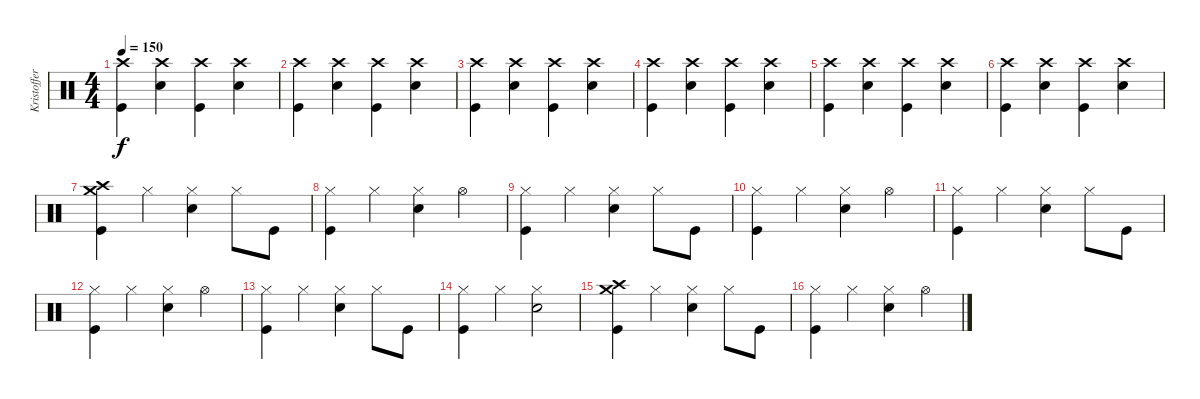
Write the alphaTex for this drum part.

\track ("Kristoffer Söderström - Drums" "Kristoffer") {instrument percussion}
\staff {score}
\articulation defaults
\ts (4 4)
\tempo 150
\clef neutral
\ks c
("Crash high (hit)" "Kick (hit)").4{dy f} ("Crash high (hit)" "Snare (hit) 2").4 ("Crash high (hit)" "Kick (hit)").4 ("Crash high (hit)" "Snare (hit) 2").4 |
("Crash high (hit)" "Kick (hit)").4 ("Crash high (hit)" "Snare (hit) 2").4 ("Crash high (hit)" "Kick (hit)").4 ("Crash high (hit)" "Snare (hit) 2").4 |
("Crash high (hit)" "Kick (hit)").4 ("Crash high (hit)" "Snare (hit) 2").4 ("Crash high (hit)" "Kick (hit)").4 ("Crash high (hit)" "Snare (hit) 2").4 |
("Crash high (hit)" "Kick (hit)").4 ("Crash high (hit)" "Snare (hit) 2").4 ("Crash high (hit)" "Kick (hit)").4 ("Crash high (hit)" "Snare (hit) 2").4 |
("Crash high (hit)" "Kick (hit)").4 ("Crash high (hit)" "Snare (hit) 2").4 ("Crash high (hit)" "Kick (hit)").4 ("Crash high (hit)" "Snare (hit) 2").4 |
("Crash high (hit)" "Kick (hit)").4 ("Crash high (hit)" "Snare (hit) 2").4 ("Crash high (hit)" "Kick (hit)").4 ("Crash high (hit)" "Snare (hit) 2").4 |
("Crash medium (hit)" "Crash high (hit)" "Kick (hit)").4 "Hi-Hat (closed)".4 ("Hi-Hat (closed)" "Snare (hit) 2").4 "Hi-Hat (closed)".8 "Kick (hit)".8 |
("Hi-Hat (closed)" "Kick (hit)").4 "Hi-Hat (closed)".4 ("Hi-Hat (closed)" "Snare (hit) 2").4 "Hi-Hat (open)".4 |
("Hi-Hat (closed)" "Kick (hit)").4 "Hi-Hat (closed)".4 ("Hi-Hat (closed)" "Snare (hit) 2").4 "Hi-Hat (closed)".8 "Kick (hit)".8 |
("Hi-Hat (closed)" "Kick (hit)").4 "Hi-Hat (closed)".4 ("Hi-Hat (closed)" "Snare (hit) 2").4 "Hi-Hat (open)".4 |
("Hi-Hat (closed)" "Kick (hit)").4 "Hi-Hat (closed)".4 ("Hi-Hat (closed)" "Snare (hit) 2").4 "Hi-Hat (closed)".8 "Kick (hit)".8 |
("Hi-Hat (closed)" "Kick (hit)").4 "Hi-Hat (closed)".4 ("Hi-Hat (closed)" "Snare (hit) 2").4 "Hi-Hat (open)".4 |
("Hi-Hat (closed)" "Kick (hit)").4 "Hi-Hat (closed)".4 ("Hi-Hat (closed)" "Snare (hit) 2").4 "Hi-Hat (closed)".8 "Kick (hit)".8 |
("Hi-Hat (closed)" "Kick (hit)").4 "Hi-Hat (closed)".4 ("Hi-Hat (closed)" "Snare (hit) 2").2 |
("Crash medium (hit)" "Crash high (hit)" "Kick (hit)").4 "Hi-Hat (closed)".4 ("Hi-Hat (closed)" "Snare (hit) 2").4 "Hi-Hat (closed)".8 "Kick (hit)".8 |
("Hi-Hat (closed)" "Kick (hit)").4 "Hi-Hat (closed)".4 ("Hi-Hat (closed)" "Snare (hit) 2").4 "Hi-Hat (open)".4
